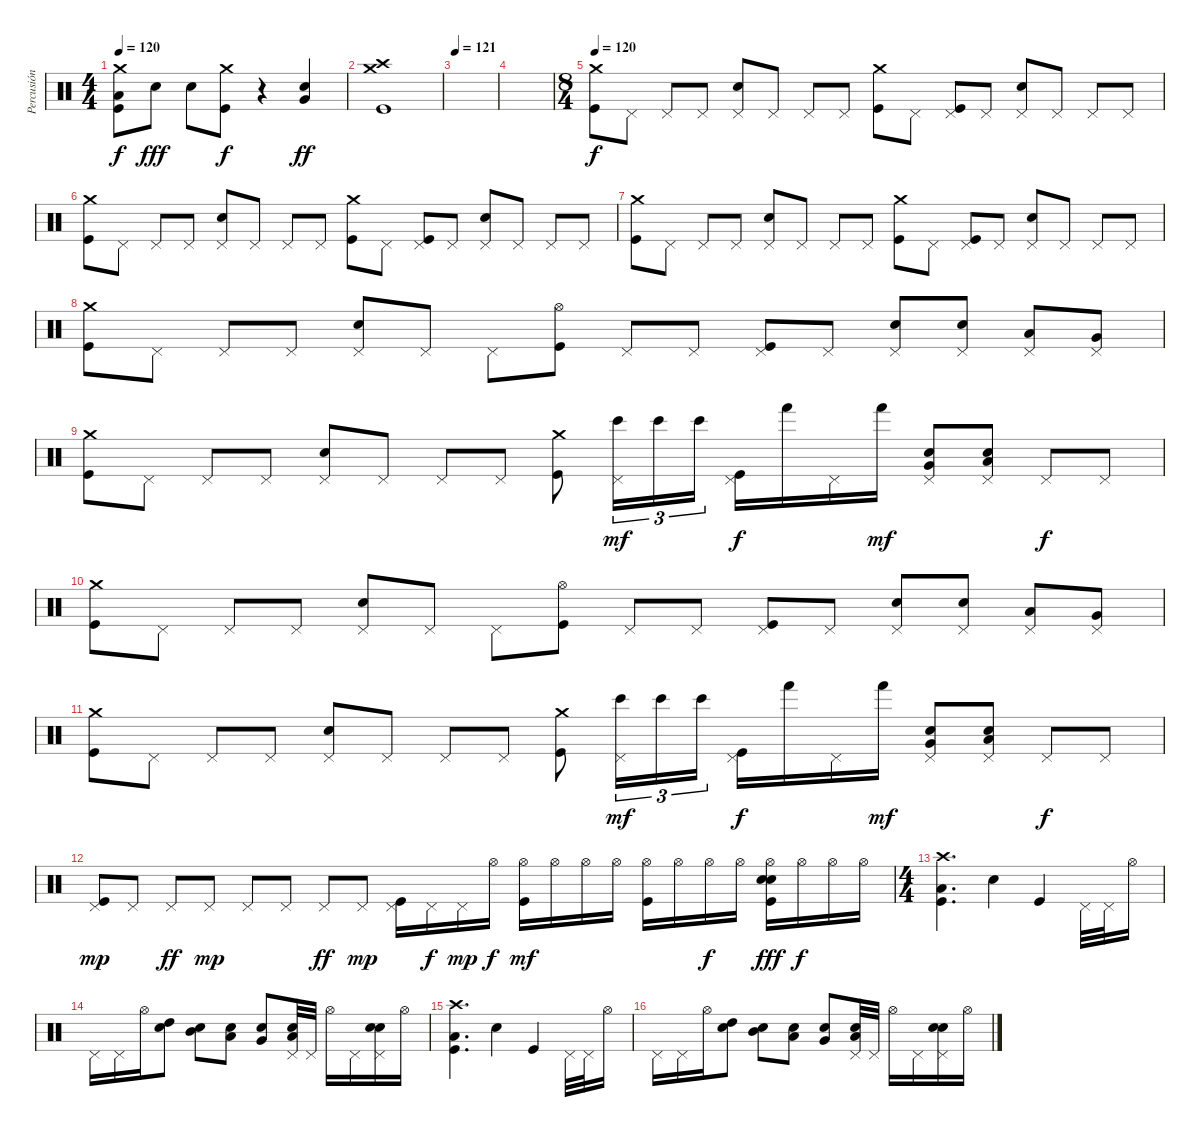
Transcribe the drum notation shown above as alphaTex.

\track ("Percusión" "Percusión") {instrument percussion}
\staff {score}
\articulation defaults
\ts (4 4)
\tempo 120
\clef neutral
\ks c
("Kick (hit)" "Low Tom (hit)" "Crash medium (hit)").8{dy f} "Electric Snare (hit)".8{dy fff} "Electric Snare (hit)".8 ("Kick (hit)" "Crash medium (hit)").8{dy f} r.4 ("Electric Snare (hit)" "Very Low Tom (hit)").4{dy ff} |
("Kick (hit)" "Crash high (hit)" "Crash medium (hit)").1 |
\tempo 121
|
|
\ts (8 4)
\tempo 120
("Kick (hit)" "Crash medium (hit)").8{dy f} "Pedal Hi-Hat (hit)".8 "Pedal Hi-Hat (hit)".8 "Pedal Hi-Hat (hit)".8 ("Electric Snare (hit)" "Pedal Hi-Hat (hit)").8 "Pedal Hi-Hat (hit)".8 "Pedal Hi-Hat (hit)".8 "Pedal Hi-Hat (hit)".8 ("Kick (hit)" "Crash medium (hit)").8 "Pedal Hi-Hat (hit)".8 ("Kick (hit)" "Pedal Hi-Hat (hit)").8 "Pedal Hi-Hat (hit)".8 ("Electric Snare (hit)" "Pedal Hi-Hat (hit)").8 "Pedal Hi-Hat (hit)".8 "Pedal Hi-Hat (hit)".8 "Pedal Hi-Hat (hit)".8 |
("Kick (hit)" "Crash medium (hit)").8 "Pedal Hi-Hat (hit)".8 "Pedal Hi-Hat (hit)".8 "Pedal Hi-Hat (hit)".8 ("Electric Snare (hit)" "Pedal Hi-Hat (hit)").8 "Pedal Hi-Hat (hit)".8 "Pedal Hi-Hat (hit)".8 "Pedal Hi-Hat (hit)".8 ("Kick (hit)" "Crash medium (hit)").8 "Pedal Hi-Hat (hit)".8 ("Kick (hit)" "Pedal Hi-Hat (hit)").8 "Pedal Hi-Hat (hit)".8 ("Electric Snare (hit)" "Pedal Hi-Hat (hit)").8 "Pedal Hi-Hat (hit)".8 "Pedal Hi-Hat (hit)".8 "Pedal Hi-Hat (hit)".8 |
("Kick (hit)" "Crash medium (hit)").8 "Pedal Hi-Hat (hit)".8 "Pedal Hi-Hat (hit)".8 "Pedal Hi-Hat (hit)".8 ("Electric Snare (hit)" "Pedal Hi-Hat (hit)").8 "Pedal Hi-Hat (hit)".8 "Pedal Hi-Hat (hit)".8 "Pedal Hi-Hat (hit)".8 ("Kick (hit)" "Crash medium (hit)").8 "Pedal Hi-Hat (hit)".8 ("Kick (hit)" "Pedal Hi-Hat (hit)").8 "Pedal Hi-Hat (hit)".8 ("Electric Snare (hit)" "Pedal Hi-Hat (hit)").8 "Pedal Hi-Hat (hit)".8 "Pedal Hi-Hat (hit)".8 "Pedal Hi-Hat (hit)".8 |
("Kick (hit)" "Crash medium (hit)").8 "Pedal Hi-Hat (hit)".8 "Pedal Hi-Hat (hit)".8 "Pedal Hi-Hat (hit)".8 ("Electric Snare (hit)" "Pedal Hi-Hat (hit)").8 "Pedal Hi-Hat (hit)".8 "Pedal Hi-Hat (hit)".8 ("Kick (hit)" "Hi-Hat (open)").8 "Pedal Hi-Hat (hit)".8 "Pedal Hi-Hat (hit)".8 ("Kick (hit)" "Pedal Hi-Hat (hit)").8 "Pedal Hi-Hat (hit)".8 ("Electric Snare (hit)" "Pedal Hi-Hat (hit)").8 ("Electric Snare (hit)" "Pedal Hi-Hat (hit)").8 ("Low Tom (hit)" "Pedal Hi-Hat (hit)").8 ("Very Low Tom (hit)" "Pedal Hi-Hat (hit)").8 |
("Kick (hit)" "Crash medium (hit)").8 "Pedal Hi-Hat (hit)".8 "Pedal Hi-Hat (hit)".8 "Pedal Hi-Hat (hit)".8 ("Electric Snare (hit)" "Pedal Hi-Hat (hit)").8 "Pedal Hi-Hat (hit)".8 "Pedal Hi-Hat (hit)".8 "Pedal Hi-Hat (hit)".8 ("Kick (hit)" "Crash medium (hit)").8 ("Bongo High (hit)" "Pedal Hi-Hat (hit)").16{tu (3 2) dy mf} "Bongo High (hit)".16{tu (3 2)} "Bongo High (hit)".16{tu (3 2)} ("Kick (hit)" "Pedal Hi-Hat (hit)").16{dy f} "Hand (hit)".16 "Pedal Hi-Hat (hit)".16 "Hand (hit)".16{dy mf} ("Electric Snare (hit)" "Very Low Tom (hit)" "Pedal Hi-Hat (hit)").8 ("Electric Snare (hit)" "Low Tom (hit)" "Pedal Hi-Hat (hit)").8 "Pedal Hi-Hat (hit)".8{dy f} "Pedal Hi-Hat (hit)".8 |
("Kick (hit)" "Crash medium (hit)").8 "Pedal Hi-Hat (hit)".8 "Pedal Hi-Hat (hit)".8 "Pedal Hi-Hat (hit)".8 ("Electric Snare (hit)" "Pedal Hi-Hat (hit)").8 "Pedal Hi-Hat (hit)".8 "Pedal Hi-Hat (hit)".8 ("Kick (hit)" "Hi-Hat (open)").8 "Pedal Hi-Hat (hit)".8 "Pedal Hi-Hat (hit)".8 ("Kick (hit)" "Pedal Hi-Hat (hit)").8 "Pedal Hi-Hat (hit)".8 ("Electric Snare (hit)" "Pedal Hi-Hat (hit)").8 ("Electric Snare (hit)" "Pedal Hi-Hat (hit)").8 ("Low Tom (hit)" "Pedal Hi-Hat (hit)").8 ("Very Low Tom (hit)" "Pedal Hi-Hat (hit)").8 |
("Kick (hit)" "Crash medium (hit)").8 "Pedal Hi-Hat (hit)".8 "Pedal Hi-Hat (hit)".8 "Pedal Hi-Hat (hit)".8 ("Electric Snare (hit)" "Pedal Hi-Hat (hit)").8 "Pedal Hi-Hat (hit)".8 "Pedal Hi-Hat (hit)".8 "Pedal Hi-Hat (hit)".8 ("Kick (hit)" "Crash medium (hit)").8 ("Bongo High (hit)" "Pedal Hi-Hat (hit)").16{tu (3 2) dy mf} "Bongo High (hit)".16{tu (3 2)} "Bongo High (hit)".16{tu (3 2)} ("Kick (hit)" "Pedal Hi-Hat (hit)").16{dy f} "Hand (hit)".16 "Pedal Hi-Hat (hit)".16 "Hand (hit)".16{dy mf} ("Electric Snare (hit)" "Very Low Tom (hit)" "Pedal Hi-Hat (hit)").8 ("Electric Snare (hit)" "Low Tom (hit)" "Pedal Hi-Hat (hit)").8 "Pedal Hi-Hat (hit)".8{dy f} "Pedal Hi-Hat (hit)".8 |
("Kick (hit)" "Pedal Hi-Hat (hit)").8{dy mp} "Pedal Hi-Hat (hit)".8 "Pedal Hi-Hat (hit)".8{dy ff} "Pedal Hi-Hat (hit)".8{dy mp} "Pedal Hi-Hat (hit)".8 "Pedal Hi-Hat (hit)".8 "Pedal Hi-Hat (hit)".8{dy ff} "Pedal Hi-Hat (hit)".8{dy mp} ("Kick (hit)" "Pedal Hi-Hat (hit)").16 "Pedal Hi-Hat (hit)".16{dy f} "Pedal Hi-Hat (hit)".16{dy mp} "Hi-Hat (open)".16{dy f} ("Kick (hit)" "Hi-Hat (open)").16{dy mf} "Hi-Hat (open)".16 "Hi-Hat (open)".16 "Hi-Hat (open)".16 ("Kick (hit)" "Hi-Hat (open)").16 "Hi-Hat (open)".16 "Hi-Hat (open)".16{dy f} "Hi-Hat (open)".16 ("Kick (hit)" "Electric Snare (hit)" "Electric Snare (hit)" "Hi-Hat (open)").16{dy fff} "Hi-Hat (open)".16{dy f} "Hi-Hat (open)".16 "Hi-Hat (open)".16 |
\ts (4 4)
("Kick (hit)" "Low Tom (hit)" "Crash high (hit)").4{d} "Electric Snare (hit)".4 "Kick (hit)".4 "Pedal Hi-Hat (hit)".32 "Pedal Hi-Hat (hit)".32 "Hi-Hat (open)".16 |
"Pedal Hi-Hat (hit)".16 "Pedal Hi-Hat (hit)".16 "Hi-Hat (open)".16 ("Electric Snare (hit)" "High Tom (hit)").8 ("Electric Snare (hit)" "Mid Tom (hit)").8 ("Electric Snare (hit)" "Low Tom (hit)").8 ("Electric Snare (hit)" "Very Low Tom (hit)").8 ("Electric Snare (hit)" "Low Floor Tom (hit)" "Pedal Hi-Hat (hit)").32 "Pedal Hi-Hat (hit)".32 "Hi-Hat (open)".16 "Pedal Hi-Hat (hit)".16 ("Electric Snare (hit)" "Electric Snare (hit)" "Pedal Hi-Hat (hit)").16 "Hi-Hat (open)".16 |
("Kick (hit)" "Low Tom (hit)" "Crash high (hit)").4{d} "Electric Snare (hit)".4 "Kick (hit)".4 "Pedal Hi-Hat (hit)".32 "Pedal Hi-Hat (hit)".32 "Hi-Hat (open)".16 |
"Pedal Hi-Hat (hit)".16 "Pedal Hi-Hat (hit)".16 "Hi-Hat (open)".16 ("Electric Snare (hit)" "High Tom (hit)").8 ("Electric Snare (hit)" "Mid Tom (hit)").8 ("Electric Snare (hit)" "Low Tom (hit)").8 ("Electric Snare (hit)" "Very Low Tom (hit)").8 ("Electric Snare (hit)" "Low Floor Tom (hit)" "Pedal Hi-Hat (hit)").32 "Pedal Hi-Hat (hit)".32 "Hi-Hat (open)".16 "Pedal Hi-Hat (hit)".16 ("Electric Snare (hit)" "Electric Snare (hit)" "Pedal Hi-Hat (hit)").16 "Hi-Hat (open)".16
